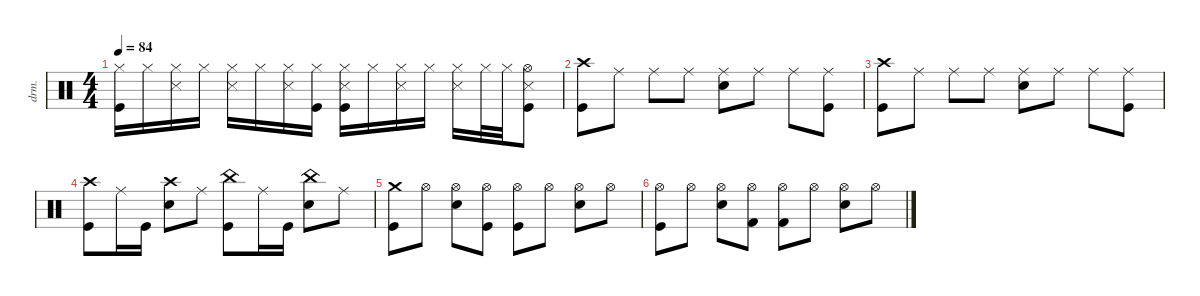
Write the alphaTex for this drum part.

\defaultSystemsLayout 4
\hideDynamics
\bracketExtendMode nobrackets
\otherSystemsTrackNameOrientation horizontal
\track ("Drumkit" "drm.") {instrument percussion}
\staff {score}
\articulation defaults
\ts (4 4)
\tempo 84
\clef neutral
\ks aminor
("Kick (hit)" "Hi-Hat (closed)").16{dy f beam Down} "Hi-Hat (closed)".16{dy p beam Down} ("Hi-Hat (closed)" "Snare (side stick) 3").16{dy f beam Down} "Hi-Hat (closed)".16{dy mp beam Down} ("Hi-Hat (closed)" "Snare (side stick) 3").16{dy f beam Down} "Hi-Hat (closed)".16{beam Down} ("Hi-Hat (closed)" "Snare (side stick) 3").16{beam Down} ("Hi-Hat (closed)" "Kick (hit)").16{dy mp beam Down} ("Hi-Hat (closed)" "Kick (hit)" "Snare (side stick) 3").16{dy f beam Down} "Hi-Hat (closed)".16{dy mp beam Down} ("Hi-Hat (closed)" "Snare (side stick) 3").16{dy f beam Down} "Hi-Hat (closed)".16{dy mp beam Down} ("Hi-Hat (closed)" "Snare (side stick) 3").16{dy f beam Down} "Hi-Hat (closed)".32{dy mp beam Down} "Hi-Hat (closed)".32{beam Down} ("Kick (hit)" "Hi-Hat (open)" "Snare (side stick) 3").8{dy f beam Down} |
("Crash high (hit)" "Kick (hit)").8{dy mf beam Down} "Ride (middle)".8{beam Down} "Ride (middle)".8{beam Down} "Ride (middle)".8{beam Down} ("Ride (middle)" "Snare (hit) 2").8{beam Down} "Ride (middle)".8{beam Down} "Ride (middle)".8{beam Down} ("Ride (middle)" "Kick (hit)").8{beam Down} |
("Crash high (hit)" "Kick (hit)").8{beam Down} "Ride (middle)".8{beam Down} "Ride (middle)".8{beam Down} "Ride (middle)".8{beam Down} ("Ride (middle)" "Snare (hit) 2").8{beam Down} "Ride (middle)".8{beam Down} "Ride (middle)".8{beam Down} ("Ride (middle)" "Kick (hit)").8{beam Down} |
("Crash high (hit)" "Kick (hit)").8{dy f beam Down} "Ride (middle)".16{beam Down} "Kick (hit)".16{beam Down} ("Snare (hit) 2" "Crash high (hit)").8{beam Down} "Ride (middle)".8{beam Down} ("Kick (hit)" "China (hit)").8{beam Down} "Ride (middle)".16{beam Down} "Kick (hit)".16{beam Down} ("Snare (hit) 2" "China (hit)").8{beam Down} "Ride (middle)".8{beam Down} |
("Crash medium (hit)" "Kick (hit)").8{beam Down} "Hi-Hat (open)".8{dy mf beam Down} ("Hi-Hat (open)" "Snare (hit) 2").8{beam Down} ("Hi-Hat (open)" "Kick (hit)").8{beam Down} ("Hi-Hat (open)" "Kick (hit)").8{beam Down} "Hi-Hat (open)".8{beam Down} ("Hi-Hat (open)" "Snare (hit) 2").8{beam Down} "Hi-Hat (open)".8{beam Down} |
("Hi-Hat (open)" "Kick (hit)").8{beam Down} "Hi-Hat (open)".8{beam Down} ("Hi-Hat (open)" "Snare (hit) 2").8{beam Down} ("Hi-Hat (open)" "Kick (hit) 2").8{beam Down} ("Hi-Hat (open)" "Kick (hit) 2").8{beam Down} "Hi-Hat (open)".8{beam Down} ("Hi-Hat (open)" "Snare (hit) 2").8{beam Down} "Hi-Hat (open)".8{beam Down}
